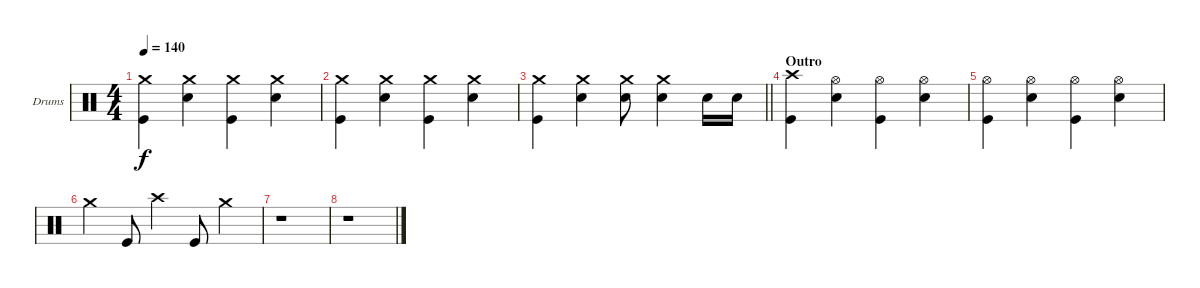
\bracketExtendMode groupsimilarinstruments
\firstSystemTrackNameOrientation horizontal
\otherSystemsTrackNameOrientation horizontal
\track ("Drumkit" "Drums") {instrument percussion}
\staff {score}
\articulation defaults
\ts (4 4)
\tempo 140
\clef neutral
\ks c
("Crash medium (hit)" "Kick (hit)").4{dy f} ("Crash medium (hit)" "Snare (hit) 2").4 ("Crash medium (hit)" "Kick (hit)").4 ("Crash medium (hit)" "Snare (hit) 2").4 |
("Crash medium (hit)" "Kick (hit)").4 ("Crash medium (hit)" "Snare (hit) 2").4 ("Crash medium (hit)" "Kick (hit)").4 ("Crash medium (hit)" "Snare (hit) 2").4 |
\barLineRight lightlight
("Crash medium (hit)" "Kick (hit)").4 ("Crash medium (hit)" "Snare (hit) 2").4 ("Crash medium (hit)" "Snare (hit) 2").8 ("Crash medium (hit)" "Snare (hit) 2").4 "Snare (hit) 2".16 "Snare (hit) 2".16 |
\section ("" "Outro")
("Crash high (hit)" "Kick (hit)").4 ("Hi-Hat (open)" "Snare (hit) 2").4 ("Hi-Hat (open)" "Kick (hit)").4 ("Hi-Hat (open)" "Snare (hit) 2").4 |
("Hi-Hat (open)" "Kick (hit)").4 ("Hi-Hat (open)" "Snare (hit) 2").4 ("Hi-Hat (open)" "Kick (hit)").4 ("Hi-Hat (open)" "Snare (hit) 2").4 |
"Crash medium (hit)".4 "Kick (hit)".8 "Crash high (hit)".4 "Kick (hit)".8 "Crash medium (hit)".4 |
r.1 |
r.1
